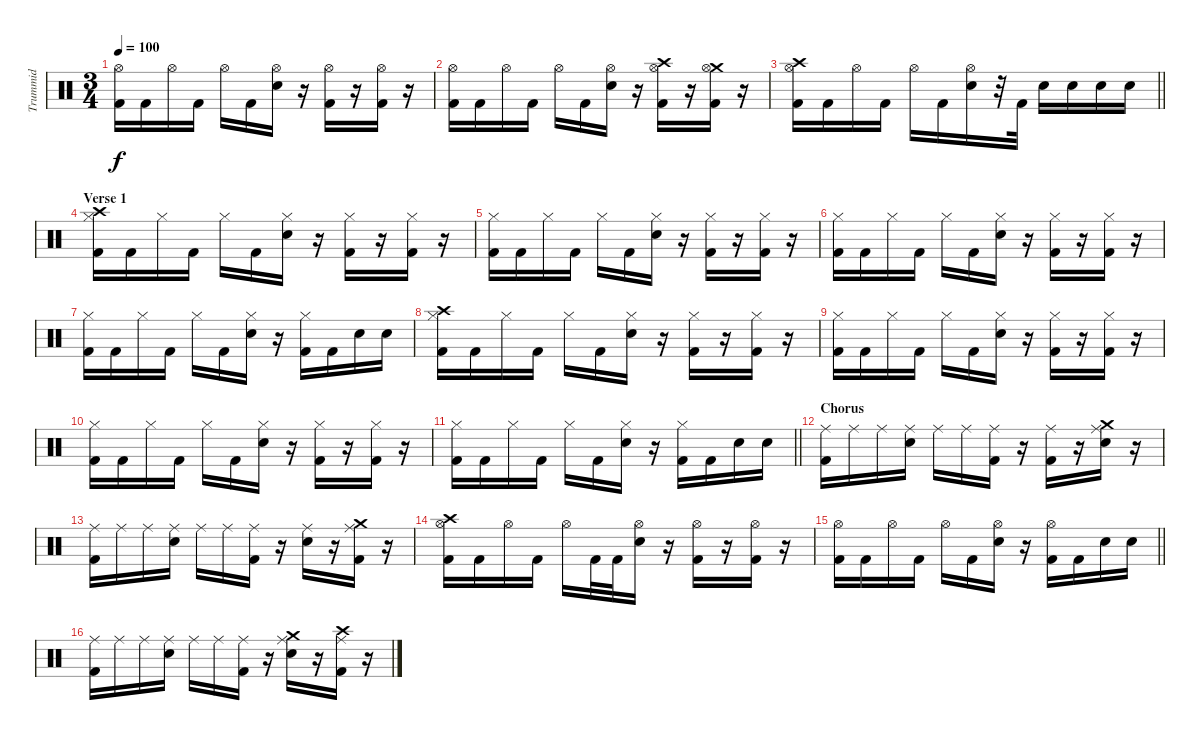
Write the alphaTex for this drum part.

\track ("Trummid" "Trummid") {instrument percussion}
\staff {score}
\articulation defaults
\ts (3 4)
\tempo 100
\clef neutral
\ks c
("Hi-Hat (open)" "Kick (hit) 2").16{dy f} "Kick (hit) 2".16 "Hi-Hat (open)".16 "Kick (hit) 2".16 "Hi-Hat (open)".16 "Kick (hit) 2".16 ("Hi-Hat (open)" "Snare (hit) 2").16 r.16 ("Hi-Hat (open)" "Kick (hit) 2").16 r.16 ("Hi-Hat (open)" "Kick (hit) 2").16 r.16 |
("Hi-Hat (open)" "Kick (hit) 2").16 "Kick (hit) 2".16 "Hi-Hat (open)".16 "Kick (hit) 2".16 "Hi-Hat (open)".16 "Kick (hit) 2".16 ("Hi-Hat (open)" "Snare (hit) 2").16 r.16 ("Crash high (hit)" "Hi-Hat (open)" "Kick (hit) 2").16 r.16 ("Crash medium (hit)" "Hi-Hat (open)" "Kick (hit) 2").16 r.16 |
\barLineRight lightlight
("Crash high (hit)" "Hi-Hat (open)" "Kick (hit) 2").16 "Kick (hit) 2".16 "Hi-Hat (open)".16 "Kick (hit) 2".16 "Hi-Hat (open)".16 "Kick (hit) 2".16 ("Hi-Hat (open)" "Snare (hit) 2").16 r.32 "Kick (hit) 2".32 "Snare (hit) 2".16 "Snare (hit) 2".16 "Snare (hit) 2".16 "Snare (hit) 2".16 |
\section ("" "Verse 1")
("Crash high (hit)" "Hi-Hat (closed)" "Kick (hit) 2").16 "Kick (hit) 2".16 "Hi-Hat (closed)".16 "Kick (hit) 2".16 "Hi-Hat (closed)".16 "Kick (hit) 2".16 ("Hi-Hat (closed)" "Snare (hit) 2").16 r.16 ("Hi-Hat (closed)" "Kick (hit) 2").16 r.16 ("Hi-Hat (closed)" "Kick (hit) 2").16 r.16 |
("Hi-Hat (closed)" "Kick (hit) 2").16 "Kick (hit) 2".16 "Hi-Hat (closed)".16 "Kick (hit) 2".16 "Hi-Hat (closed)".16 "Kick (hit) 2".16 ("Hi-Hat (closed)" "Snare (hit) 2").16 r.16 ("Hi-Hat (closed)" "Kick (hit) 2").16 r.16 ("Hi-Hat (closed)" "Kick (hit) 2").16 r.16 |
("Hi-Hat (closed)" "Kick (hit) 2").16 "Kick (hit) 2".16 "Hi-Hat (closed)".16 "Kick (hit) 2".16 "Hi-Hat (closed)".16 "Kick (hit) 2".16 ("Hi-Hat (closed)" "Snare (hit) 2").16 r.16 ("Hi-Hat (closed)" "Kick (hit) 2").16 r.16 ("Hi-Hat (closed)" "Kick (hit) 2").16 r.16 |
("Hi-Hat (closed)" "Kick (hit) 2").16 "Kick (hit) 2".16 "Hi-Hat (closed)".16 "Kick (hit) 2".16 "Hi-Hat (closed)".16 "Kick (hit) 2".16 ("Hi-Hat (closed)" "Snare (hit) 2").16 r.16 ("Hi-Hat (closed)" "Kick (hit) 2").16 "Kick (hit) 2".16 "Snare (hit) 2".16 "Snare (hit) 2".16 |
("Crash high (hit)" "Hi-Hat (closed)" "Kick (hit) 2").16 "Kick (hit) 2".16 "Hi-Hat (closed)".16 "Kick (hit) 2".16 "Hi-Hat (closed)".16 "Kick (hit) 2".16 ("Hi-Hat (closed)" "Snare (hit) 2").16 r.16 ("Hi-Hat (closed)" "Kick (hit) 2").16 r.16 ("Hi-Hat (closed)" "Kick (hit) 2").16 r.16 |
("Hi-Hat (closed)" "Kick (hit) 2").16 "Kick (hit) 2".16 "Hi-Hat (closed)".16 "Kick (hit) 2".16 "Hi-Hat (closed)".16 "Kick (hit) 2".16 ("Hi-Hat (closed)" "Snare (hit) 2").16 r.16 ("Hi-Hat (closed)" "Kick (hit) 2").16 r.16 ("Hi-Hat (closed)" "Kick (hit) 2").16 r.16 |
("Hi-Hat (closed)" "Kick (hit) 2").16 "Kick (hit) 2".16 "Hi-Hat (closed)".16 "Kick (hit) 2".16 "Hi-Hat (closed)".16 "Kick (hit) 2".16 ("Hi-Hat (closed)" "Snare (hit) 2").16 r.16 ("Hi-Hat (closed)" "Kick (hit) 2").16 r.16 ("Hi-Hat (closed)" "Kick (hit) 2").16 r.16 |
\barLineRight lightlight
("Hi-Hat (closed)" "Kick (hit) 2").16 "Kick (hit) 2".16 "Hi-Hat (closed)".16 "Kick (hit) 2".16 "Hi-Hat (closed)".16 "Kick (hit) 2".16 ("Hi-Hat (closed)" "Snare (hit) 2").16 r.16 ("Hi-Hat (closed)" "Kick (hit) 2").16 "Kick (hit) 2".16 "Snare (hit) 2".16 "Snare (hit) 2".16 |
\section ("" "Chorus")
("Ride (middle)" "Kick (hit) 2").16 "Ride (middle)".16 "Ride (middle)".16 ("Ride (middle)" "Snare (hit) 2").16 "Ride (middle)".16 "Ride (middle)".16 ("Ride (middle)" "Kick (hit) 2").16 r.16 ("Ride (middle)" "Kick (hit) 2").16 r.16 ("Crash medium (hit)" "Ride (middle)" "Snare (hit) 2").16 r.16 |
("Ride (middle)" "Kick (hit) 2").16 "Ride (middle)".16 "Ride (middle)".16 ("Ride (middle)" "Snare (hit) 2").16 "Ride (middle)".16 "Ride (middle)".16 ("Ride (middle)" "Kick (hit) 2").16 r.16 ("Ride (middle)" "Snare (hit) 2").16 r.16 ("Crash medium (hit)" "Ride (middle)" "Kick (hit) 2").16 r.16 |
("Crash high (hit)" "Hi-Hat (open)" "Kick (hit) 2").16 "Kick (hit) 2".16 "Hi-Hat (open)".16 "Kick (hit) 2".16 "Hi-Hat (open)".16 "Kick (hit) 2".32 "Kick (hit) 2".32 ("Hi-Hat (open)" "Snare (hit) 2").16 r.16 ("Hi-Hat (open)" "Kick (hit) 2").16 r.16 ("Hi-Hat (open)" "Kick (hit) 2").16 r.16 |
\barLineRight lightlight
("Hi-Hat (open)" "Kick (hit) 2").16 "Kick (hit) 2".16 "Hi-Hat (open)".16 "Kick (hit) 2".16 "Hi-Hat (open)".16 "Kick (hit) 2".16 ("Hi-Hat (open)" "Snare (hit) 2").16 r.16 ("Hi-Hat (open)" "Kick (hit) 2").16 "Kick (hit) 2".16 "Snare (hit) 2".16 "Snare (hit) 2".16 |
("Ride (middle)" "Kick (hit) 2").16 "Ride (middle)".16 "Ride (middle)".16 ("Ride (middle)" "Snare (hit) 2").16 "Ride (middle)".16 "Ride (middle)".16 ("Ride (middle)" "Kick (hit) 2").16 r.16 ("Crash medium (hit)" "Ride (middle)" "Snare (hit) 2").16 r.16 ("Crash high (hit)" "Ride (middle)" "Kick (hit) 2").16 r.16
